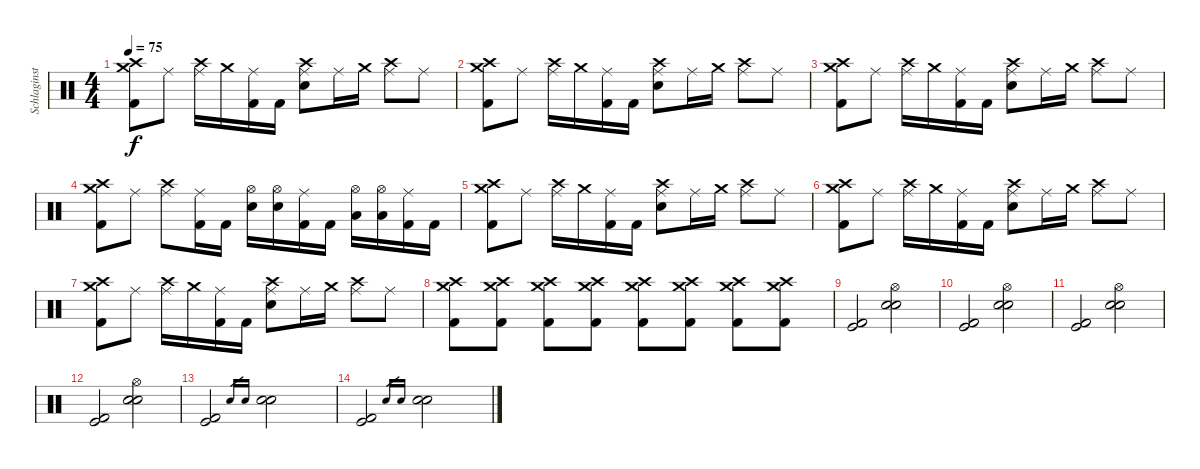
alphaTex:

\track ("Schlaginstrumente - Auswahl" "Schlaginst") {instrument percussion}
\staff {score}
\articulation defaults
\ts (4 4)
\tempo 75
\clef neutral
\ks c
("Crash high (hit)" "Crash medium (hit)" "Kick (hit) 2").8{dy f} "Ride (middle)".8 ("Crash high (hit)" "Ride (middle)").16 "Crash medium (hit)".16 ("Ride (middle)" "Kick (hit) 2").16 "Kick (hit) 2".16 ("Crash high (hit)" "Ride (middle)" "Electric Snare (hit)").8 "Ride (middle)".16 "Crash medium (hit)".16 ("Crash high (hit)" "Ride (middle)").8 "Ride (middle)".8 |
("Crash high (hit)" "Crash medium (hit)" "Kick (hit) 2").8 "Ride (middle)".8 ("Crash high (hit)" "Ride (middle)").16 "Crash medium (hit)".16 ("Ride (middle)" "Kick (hit) 2").16 "Kick (hit) 2".16 ("Crash high (hit)" "Ride (middle)" "Electric Snare (hit)").8 "Ride (middle)".16 "Crash medium (hit)".16 ("Crash high (hit)" "Ride (middle)").8 "Ride (middle)".8 |
("Crash high (hit)" "Crash medium (hit)" "Kick (hit) 2").8 "Ride (middle)".8 ("Crash high (hit)" "Ride (middle)").16 "Crash medium (hit)".16 ("Ride (middle)" "Kick (hit) 2").16 "Kick (hit) 2".16 ("Crash high (hit)" "Ride (middle)" "Electric Snare (hit)").8 "Ride (middle)".16 "Crash medium (hit)".16 ("Crash high (hit)" "Ride (middle)").8 "Ride (middle)".8 |
("Crash high (hit)" "Crash medium (hit)" "Kick (hit) 2").8 "Ride (middle)".8 ("Crash high (hit)" "Ride (middle)").8 ("Ride (middle)" "Kick (hit) 2").16 "Kick (hit) 2".16 ("Hi-Hat (open)" "Electric Snare (hit)").16 ("Hi-Hat (open)" "Electric Snare (hit)").16 ("Ride (middle)" "Kick (hit) 2").16 "Kick (hit) 2".16 ("Hi-Hat (open)" "Low Tom (hit)").16 ("Hi-Hat (open)" "Low Tom (hit)").16 ("Ride (middle)" "Kick (hit) 2").16 "Kick (hit) 2".16 |
("Crash high (hit)" "Crash medium (hit)" "Kick (hit) 2").8 "Ride (middle)".8 ("Crash high (hit)" "Ride (middle)").16 "Crash medium (hit)".16 ("Ride (middle)" "Kick (hit) 2").16 "Kick (hit) 2".16 ("Crash high (hit)" "Ride (middle)" "Electric Snare (hit)").8 "Ride (middle)".16 "Crash medium (hit)".16 ("Crash high (hit)" "Ride (middle)").8 "Ride (middle)".8 |
("Crash high (hit)" "Crash medium (hit)" "Kick (hit) 2").8 "Ride (middle)".8 ("Crash high (hit)" "Ride (middle)").16 "Crash medium (hit)".16 ("Ride (middle)" "Kick (hit) 2").16 "Kick (hit) 2".16 ("Crash high (hit)" "Ride (middle)" "Electric Snare (hit)").8 "Ride (middle)".16 "Crash medium (hit)".16 ("Crash high (hit)" "Ride (middle)").8 "Ride (middle)".8 |
("Crash high (hit)" "Crash medium (hit)" "Kick (hit) 2").8 "Ride (middle)".8 ("Crash high (hit)" "Ride (middle)").16 "Crash medium (hit)".16 ("Ride (middle)" "Kick (hit) 2").16 "Kick (hit) 2".16 ("Crash high (hit)" "Ride (middle)" "Electric Snare (hit)").8 "Ride (middle)".16 "Crash medium (hit)".16 ("Crash high (hit)" "Ride (middle)").8 "Ride (middle)".8 |
("Crash high (hit)" "Crash medium (hit)" "Kick (hit) 2").8 ("Crash high (hit)" "Crash medium (hit)" "Kick (hit) 2").8 ("Crash high (hit)" "Crash medium (hit)" "Kick (hit) 2").8 ("Crash high (hit)" "Crash medium (hit)" "Kick (hit) 2").8 ("Crash high (hit)" "Crash medium (hit)" "Kick (hit) 2").8 ("Crash high (hit)" "Crash medium (hit)" "Kick (hit) 2").8 ("Crash high (hit)" "Crash medium (hit)" "Kick (hit) 2").8 ("Crash high (hit)" "Crash medium (hit)" "Kick (hit) 2").8 |
("Kick (hit)" "Kick (hit) 2").2 ("Hi-Hat (open)" "Snare (hit) 2" "Electric Snare (hit)").2 |
("Kick (hit)" "Kick (hit) 2").2 ("Hi-Hat (open)" "Snare (hit) 2" "Electric Snare (hit)").2 |
("Kick (hit)" "Kick (hit) 2").2 ("Hi-Hat (open)" "Snare (hit) 2" "Electric Snare (hit)").2 |
("Kick (hit)" "Kick (hit) 2").2 ("Hi-Hat (open)" "Snare (hit) 2" "Electric Snare (hit)").2 |
("Kick (hit)" "Kick (hit) 2").2 "Snare (hit) 2".16{gr} "Electric Snare (hit)".16{gr} ("Snare (hit) 2" "Electric Snare (hit)").2 |
("Kick (hit)" "Kick (hit) 2").2 "Snare (hit) 2".16{gr} "Electric Snare (hit)".16{gr} ("Snare (hit) 2" "Electric Snare (hit)").2
